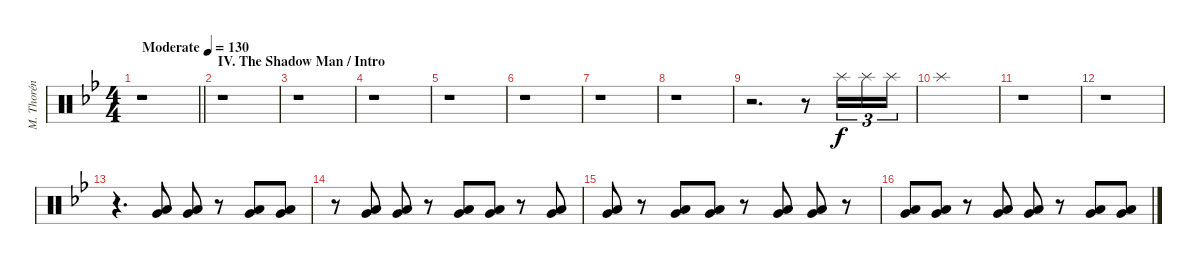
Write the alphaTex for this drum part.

\track ("M. Thorén (Drums)" "M. Thorén ") {instrument percussion}
\staff {score}
\articulation defaults
\ts (4 4)
\tempo (130 "Moderate")
\clef neutral
\barLineRight lightlight
\ks gminor
r.1{dy f} |
\section ("" "IV. The Shadow Man / Intro")
r.1 |
r.1 |
r.1 |
r.1 |
r.1 |
r.1 |
r.1 |
r.2{d} r.8 "Splash (hit)".16{tu (3 2)} "Splash (hit)".16{tu (3 2)} "Splash (hit)".16{tu (3 2)} |
"Splash (hit)".1 |
r.1 |
r.1 |
r.4{d} ("Very Low Tom (hit)" "Low Floor Tom (hit)").8 ("Very Low Tom (hit)" "Low Floor Tom (hit)").8 r.8 ("Very Low Tom (hit)" "Low Floor Tom (hit)").8 ("Very Low Tom (hit)" "Low Floor Tom (hit)").8 |
r.8 ("Very Low Tom (hit)" "Low Floor Tom (hit)").8 ("Very Low Tom (hit)" "Low Floor Tom (hit)").8 r.8 ("Very Low Tom (hit)" "Low Floor Tom (hit)").8 ("Very Low Tom (hit)" "Low Floor Tom (hit)").8 r.8 ("Very Low Tom (hit)" "Low Floor Tom (hit)").8 |
("Very Low Tom (hit)" "Low Floor Tom (hit)").8 r.8 ("Very Low Tom (hit)" "Low Floor Tom (hit)").8 ("Very Low Tom (hit)" "Low Floor Tom (hit)").8 r.8 ("Very Low Tom (hit)" "Low Floor Tom (hit)").8 ("Very Low Tom (hit)" "Low Floor Tom (hit)").8 r.8 |
("Very Low Tom (hit)" "Low Floor Tom (hit)").8 ("Very Low Tom (hit)" "Low Floor Tom (hit)").8 r.8 ("Very Low Tom (hit)" "Low Floor Tom (hit)").8 ("Very Low Tom (hit)" "Low Floor Tom (hit)").8 r.8 ("Very Low Tom (hit)" "Low Floor Tom (hit)").8 ("Very Low Tom (hit)" "Low Floor Tom (hit)").8
